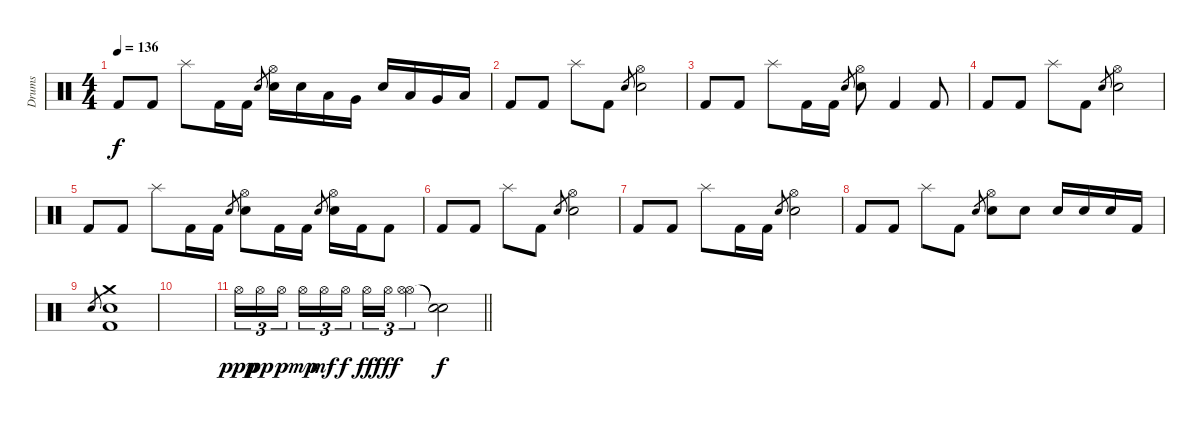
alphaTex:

\track ("Drums" "Drums") {instrument percussion}
\staff {score}
\articulation defaults
\ts (4 4)
\tempo 136
\clef neutral
\ks c "Kick (hit) 2".8{dy f} "Kick (hit) 2".8 "Splash (hit)".8 "Kick (hit) 2".16 "Kick (hit) 2".16 "Snare (hit) 2".8{gr}
("Hi-Hat (open)" "Snare (hit) 2").16 "Snare (hit) 2".16 "Low Tom (hit)".16 "Very Low Tom (hit)".16 "Snare (hit) 2".16 "Low Tom (hit)".16 "Very Low Tom (hit)".16 "Low Floor Tom (hit)".16 |
"Kick (hit) 2".8 "Kick (hit) 2".8 "Splash (hit)".8 "Kick (hit) 2".8 "Snare (hit) 2".8{gr} ("Hi-Hat (open)" "Snare (hit) 2").2 |
"Kick (hit) 2".8 "Kick (hit) 2".8 "Splash (hit)".8 "Kick (hit) 2".16 "Kick (hit) 2".16 "Snare (hit) 2".8{gr} ("Hi-Hat (open)" "Snare (hit) 2").8 "Kick (hit) 2".4 "Kick (hit) 2".8 |
"Kick (hit) 2".8 "Kick (hit) 2".8 "Splash (hit)".8 "Kick (hit) 2".8 "Snare (hit) 2".8{gr} ("Hi-Hat (open)" "Snare (hit) 2").2 |
"Kick (hit) 2".8 "Kick (hit) 2".8 "Splash (hit)".8 "Kick (hit) 2".16 "Kick (hit) 2".16 "Snare (hit) 2".8{gr} ("Hi-Hat (open)" "Snare (hit) 2").8 "Kick (hit) 2".16 "Kick (hit) 2".16 "Snare (hit) 2".8{gr} ("Hi-Hat (open)" "Snare (hit) 2").16 "Kick (hit) 2".16 "Kick (hit) 2".8 |
"Kick (hit) 2".8 "Kick (hit) 2".8 "Splash (hit)".8 "Kick (hit) 2".8 "Snare (hit) 2".8{gr} ("Hi-Hat (open)" "Snare (hit) 2").2 |
"Kick (hit) 2".8 "Kick (hit) 2".8 "Splash (hit)".8 "Kick (hit) 2".16 "Kick (hit) 2".16 "Snare (hit) 2".8{gr} ("Hi-Hat (open)" "Snare (hit) 2").2 |
"Kick (hit) 2".8 "Kick (hit) 2".8 "Splash (hit)".8 "Kick (hit) 2".8 "Snare (hit) 2".8{gr} ("Hi-Hat (open)" "Snare (hit) 2").8 "Snare (hit) 2".8 "Snare (hit) 2".16 "Snare (hit) 2".16 "Snare (hit) 2".16 "Kick (hit) 2".16 |
"Snare (hit) 2".8{gr} ("Crash medium (hit)" "Snare (hit) 2" "Kick (hit) 2").1 |
|
\barLineRight lightlight "Hi-Hat (open)".16{tu (3 2) dy ppp} "Hi-Hat (open)".16{tu (3 2) dy pp} "Hi-Hat (open)".16{tu (3 2) dy p beam splitsecondary} "Hi-Hat (open)".16{tu (3 2) dy mp} "Hi-Hat (open)".16{tu (3 2) dy mf} "Hi-Hat (open)".16{tu (3 2) dy f} "Hi-Hat (open)".16{tu (3 2) dy ff} "Hi-Hat (open)".16{tu (3 2) dy fff}
("Hi-Hat (open)" "Hi-Hat (open)").4{tu (3 2)} ("Snare (hit)"{t} "Snare (hit)"{t}).2{dy f}
